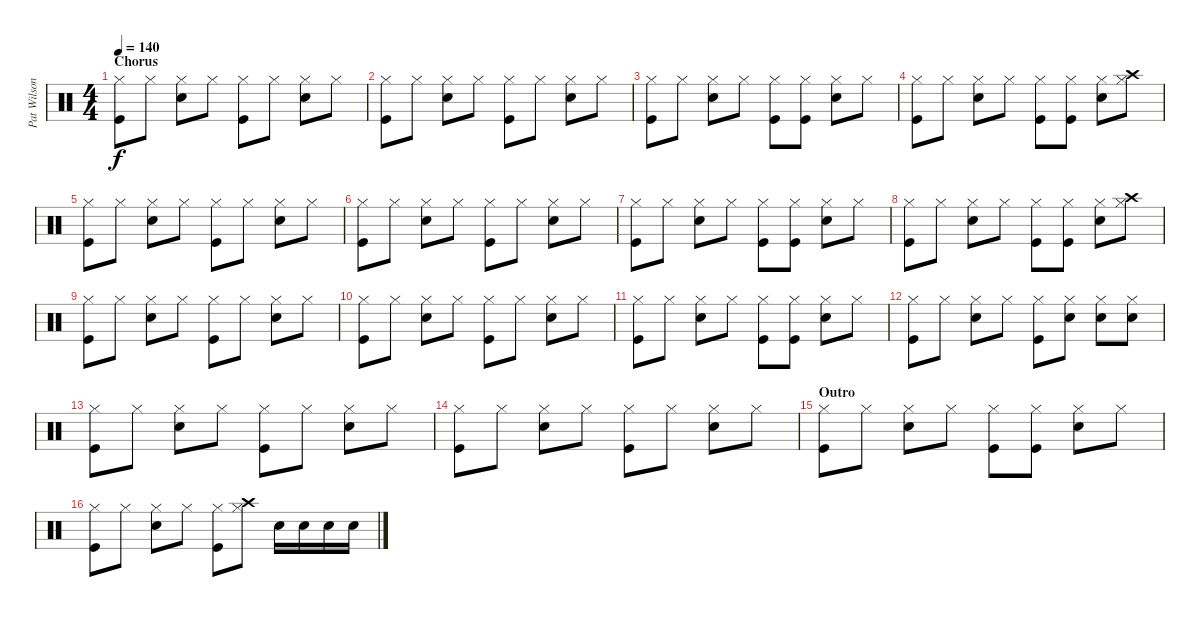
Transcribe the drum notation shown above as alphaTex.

\track ("Pat Wilson " "Pat Wilson") {instrument percussion}
\staff {score}
\articulation defaults
\ts (4 4)
\section ("" "Chorus")
\tempo 140
\clef neutral
\ks c
("Kick (hit)" "Hi-Hat (closed)").8{dy f} "Hi-Hat (closed)".8 ("Snare (hit) 2" "Hi-Hat (closed)").8 "Hi-Hat (closed)".8 ("Kick (hit)" "Hi-Hat (closed)").8 "Hi-Hat (closed)".8 ("Snare (hit) 2" "Hi-Hat (closed)").8 "Hi-Hat (closed)".8 |
("Kick (hit)" "Hi-Hat (closed)").8 "Hi-Hat (closed)".8 ("Snare (hit) 2" "Hi-Hat (closed)").8 "Hi-Hat (closed)".8 ("Kick (hit)" "Hi-Hat (closed)").8 "Hi-Hat (closed)".8 ("Snare (hit) 2" "Hi-Hat (closed)").8 "Hi-Hat (closed)".8 |
("Kick (hit)" "Hi-Hat (closed)").8 "Hi-Hat (closed)".8 ("Snare (hit) 2" "Hi-Hat (closed)").8 "Hi-Hat (closed)".8 ("Kick (hit)" "Hi-Hat (closed)").8 ("Kick (hit)" "Hi-Hat (closed)").8 ("Snare (hit) 2" "Hi-Hat (closed)").8 "Hi-Hat (closed)".8 |
("Kick (hit)" "Hi-Hat (closed)").8 "Hi-Hat (closed)".8 ("Snare (hit) 2" "Hi-Hat (closed)").8 "Hi-Hat (closed)".8 ("Kick (hit)" "Hi-Hat (closed)").8 ("Kick (hit)" "Hi-Hat (closed)").8 ("Snare (hit) 2" "Hi-Hat (closed)").8 ("Crash high (hit)" "Hi-Hat (closed)").8 |
("Kick (hit)" "Hi-Hat (closed)").8 "Hi-Hat (closed)".8 ("Snare (hit) 2" "Hi-Hat (closed)").8 "Hi-Hat (closed)".8 ("Kick (hit)" "Hi-Hat (closed)").8 "Hi-Hat (closed)".8 ("Snare (hit) 2" "Hi-Hat (closed)").8 "Hi-Hat (closed)".8 |
("Kick (hit)" "Hi-Hat (closed)").8 "Hi-Hat (closed)".8 ("Snare (hit) 2" "Hi-Hat (closed)").8 "Hi-Hat (closed)".8 ("Kick (hit)" "Hi-Hat (closed)").8 "Hi-Hat (closed)".8 ("Snare (hit) 2" "Hi-Hat (closed)").8 "Hi-Hat (closed)".8 |
("Kick (hit)" "Hi-Hat (closed)").8 "Hi-Hat (closed)".8 ("Snare (hit) 2" "Hi-Hat (closed)").8 "Hi-Hat (closed)".8 ("Kick (hit)" "Hi-Hat (closed)").8 ("Kick (hit)" "Hi-Hat (closed)").8 ("Snare (hit) 2" "Hi-Hat (closed)").8 "Hi-Hat (closed)".8 |
("Kick (hit)" "Hi-Hat (closed)").8 "Hi-Hat (closed)".8 ("Snare (hit) 2" "Hi-Hat (closed)").8 "Hi-Hat (closed)".8 ("Kick (hit)" "Hi-Hat (closed)").8 ("Kick (hit)" "Hi-Hat (closed)").8 ("Snare (hit) 2" "Hi-Hat (closed)").8 ("Crash high (hit)" "Hi-Hat (closed)").8 |
("Kick (hit)" "Hi-Hat (closed)").8 "Hi-Hat (closed)".8 ("Snare (hit) 2" "Hi-Hat (closed)").8 "Hi-Hat (closed)".8 ("Kick (hit)" "Hi-Hat (closed)").8 "Hi-Hat (closed)".8 ("Snare (hit) 2" "Hi-Hat (closed)").8 "Hi-Hat (closed)".8 |
("Kick (hit)" "Hi-Hat (closed)").8 "Hi-Hat (closed)".8 ("Snare (hit) 2" "Hi-Hat (closed)").8 "Hi-Hat (closed)".8 ("Kick (hit)" "Hi-Hat (closed)").8 "Hi-Hat (closed)".8 ("Snare (hit) 2" "Hi-Hat (closed)").8 "Hi-Hat (closed)".8 |
("Kick (hit)" "Hi-Hat (closed)").8 "Hi-Hat (closed)".8 ("Snare (hit) 2" "Hi-Hat (closed)").8 "Hi-Hat (closed)".8 ("Kick (hit)" "Hi-Hat (closed)").8 ("Kick (hit)" "Hi-Hat (closed)").8 ("Snare (hit) 2" "Hi-Hat (closed)").8 "Hi-Hat (closed)".8 |
("Kick (hit)" "Hi-Hat (closed)").8 "Hi-Hat (closed)".8 ("Snare (hit) 2" "Hi-Hat (closed)").8 "Hi-Hat (closed)".8 ("Kick (hit)" "Hi-Hat (closed)").8 ("Snare (hit) 2" "Hi-Hat (closed)").8 ("Snare (hit) 2" "Hi-Hat (closed)").8 ("Snare (hit) 2" "Hi-Hat (closed)").8 |
("Kick (hit)" "Hi-Hat (closed)").8 "Hi-Hat (closed)".8 ("Snare (hit) 2" "Hi-Hat (closed)").8 "Hi-Hat (closed)".8 ("Kick (hit)" "Hi-Hat (closed)").8 "Hi-Hat (closed)".8 ("Snare (hit) 2" "Hi-Hat (closed)").8 "Hi-Hat (closed)".8 |
("Kick (hit)" "Hi-Hat (closed)").8 "Hi-Hat (closed)".8 ("Snare (hit) 2" "Hi-Hat (closed)").8 "Hi-Hat (closed)".8 ("Kick (hit)" "Hi-Hat (closed)").8 "Hi-Hat (closed)".8 ("Snare (hit) 2" "Hi-Hat (closed)").8 "Hi-Hat (closed)".8 |
\section ("" "Outro")
("Kick (hit)" "Hi-Hat (closed)").8 "Hi-Hat (closed)".8 ("Snare (hit) 2" "Hi-Hat (closed)").8 "Hi-Hat (closed)".8 ("Kick (hit)" "Hi-Hat (closed)").8 ("Kick (hit)" "Hi-Hat (closed)").8 ("Snare (hit) 2" "Hi-Hat (closed)").8 "Hi-Hat (closed)".8 |
("Kick (hit)" "Hi-Hat (closed)").8 "Hi-Hat (closed)".8 ("Snare (hit) 2" "Hi-Hat (closed)").8 "Hi-Hat (closed)".8 ("Kick (hit)" "Hi-Hat (closed)").8 ("Crash high (hit)" "Hi-Hat (closed)").8 "Snare (hit) 2".16 "Snare (hit) 2".16 "Snare (hit) 2".16 "Snare (hit) 2".16
